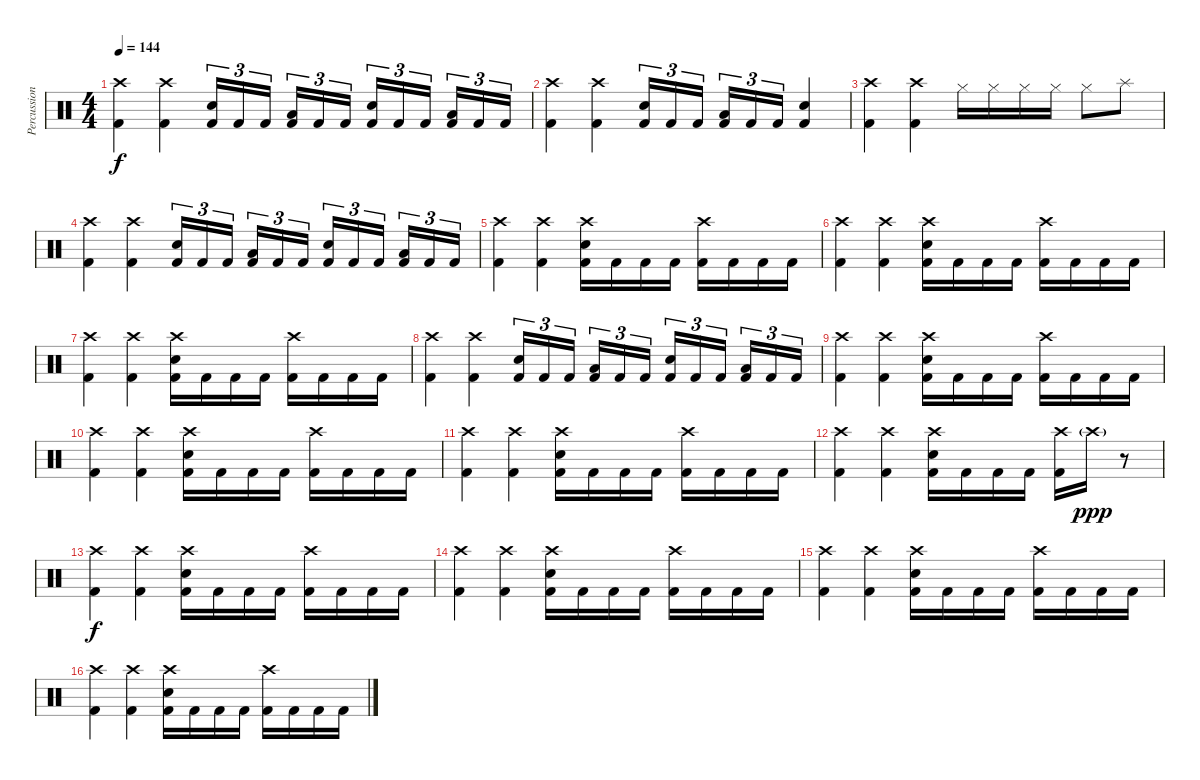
\track ("Percussion" "Percussion") {instrument percussion}
\staff {score}
\articulation defaults
\ts (4 4)
\tempo 144
\clef neutral
\ks c
("Crash high (hit)" "Kick (hit) 2").4{dy f} ("Crash high (hit)" "Kick (hit) 2").4 ("Snare (hit) 2" "Kick (hit) 2").16{tu (3 2)} "Kick (hit) 2".16{tu (3 2)} "Kick (hit) 2".16{tu (3 2) beam splitsecondary} ("Low Tom (hit)" "Kick (hit) 2").16{tu (3 2)} "Kick (hit) 2".16{tu (3 2)} "Kick (hit) 2".16{tu (3 2)} ("Snare (hit) 2" "Kick (hit) 2").16{tu (3 2)} "Kick (hit) 2".16{tu (3 2)} "Kick (hit) 2".16{tu (3 2) beam splitsecondary} ("Low Tom (hit)" "Kick (hit) 2").16{tu (3 2)} "Kick (hit) 2".16{tu (3 2)} "Kick (hit) 2".16{tu (3 2)} |
("Crash high (hit)" "Kick (hit) 2").4 ("Crash high (hit)" "Kick (hit) 2").4 ("Snare (hit) 2" "Kick (hit) 2").16{tu (3 2)} "Kick (hit) 2".16{tu (3 2)} "Kick (hit) 2".16{tu (3 2) beam splitsecondary} ("Low Tom (hit)" "Kick (hit) 2").16{tu (3 2)} "Kick (hit) 2".16{tu (3 2)} "Kick (hit) 2".16{tu (3 2)} ("Snare (hit) 2" "Kick (hit) 2").4 |
("Crash high (hit)" "Kick (hit) 2").4 ("Crash high (hit)" "Kick (hit) 2").4 "Hi-Hat (closed)".16 "Hi-Hat (closed)".16 "Hi-Hat (closed)".16 "Hi-Hat (closed)".16 "Hi-Hat (closed)".8 "Splash (hit)".8 |
("Crash high (hit)" "Kick (hit) 2").4 ("Crash high (hit)" "Kick (hit) 2").4 ("Snare (hit) 2" "Kick (hit) 2").16{tu (3 2)} "Kick (hit) 2".16{tu (3 2)} "Kick (hit) 2".16{tu (3 2) beam splitsecondary} ("Low Tom (hit)" "Kick (hit) 2").16{tu (3 2)} "Kick (hit) 2".16{tu (3 2)} "Kick (hit) 2".16{tu (3 2)} ("Snare (hit) 2" "Kick (hit) 2").16{tu (3 2)} "Kick (hit) 2".16{tu (3 2)} "Kick (hit) 2".16{tu (3 2) beam splitsecondary} ("Low Tom (hit)" "Kick (hit) 2").16{tu (3 2)} "Kick (hit) 2".16{tu (3 2)} "Kick (hit) 2".16{tu (3 2)} |
("Crash high (hit)" "Kick (hit) 2").4 ("Crash high (hit)" "Kick (hit) 2").4 ("Crash high (hit)" "Snare (hit) 2" "Kick (hit) 2").16 "Kick (hit) 2".16 "Kick (hit) 2".16 "Kick (hit) 2".16 ("Crash high (hit)" "Kick (hit) 2").16 "Kick (hit) 2".16 "Kick (hit) 2".16 "Kick (hit) 2".16 |
("Crash high (hit)" "Kick (hit) 2").4 ("Crash high (hit)" "Kick (hit) 2").4 ("Crash high (hit)" "Snare (hit) 2" "Kick (hit) 2").16 "Kick (hit) 2".16 "Kick (hit) 2".16 "Kick (hit) 2".16 ("Crash high (hit)" "Kick (hit) 2").16 "Kick (hit) 2".16 "Kick (hit) 2".16 "Kick (hit) 2".16 |
("Crash high (hit)" "Kick (hit) 2").4 ("Crash high (hit)" "Kick (hit) 2").4 ("Crash high (hit)" "Snare (hit) 2" "Kick (hit) 2").16 "Kick (hit) 2".16 "Kick (hit) 2".16 "Kick (hit) 2".16 ("Crash high (hit)" "Kick (hit) 2").16 "Kick (hit) 2".16 "Kick (hit) 2".16 "Kick (hit) 2".16 |
("Crash high (hit)" "Kick (hit) 2").4 ("Crash high (hit)" "Kick (hit) 2").4 ("Snare (hit) 2" "Kick (hit) 2").16{tu (3 2)} "Kick (hit) 2".16{tu (3 2)} "Kick (hit) 2".16{tu (3 2) beam splitsecondary} ("Low Tom (hit)" "Kick (hit) 2").16{tu (3 2)} "Kick (hit) 2".16{tu (3 2)} "Kick (hit) 2".16{tu (3 2)} ("Snare (hit) 2" "Kick (hit) 2").16{tu (3 2)} "Kick (hit) 2".16{tu (3 2)} "Kick (hit) 2".16{tu (3 2) beam splitsecondary} ("Low Tom (hit)" "Kick (hit) 2").16{tu (3 2)} "Kick (hit) 2".16{tu (3 2)} "Kick (hit) 2".16{tu (3 2)} |
("Crash high (hit)" "Kick (hit) 2").4 ("Crash high (hit)" "Kick (hit) 2").4 ("Crash high (hit)" "Snare (hit) 2" "Kick (hit) 2").16 "Kick (hit) 2".16 "Kick (hit) 2".16 "Kick (hit) 2".16 ("Crash high (hit)" "Kick (hit) 2").16 "Kick (hit) 2".16 "Kick (hit) 2".16 "Kick (hit) 2".16 |
("Crash high (hit)" "Kick (hit) 2").4 ("Crash high (hit)" "Kick (hit) 2").4 ("Crash high (hit)" "Snare (hit) 2" "Kick (hit) 2").16 "Kick (hit) 2".16 "Kick (hit) 2".16 "Kick (hit) 2".16 ("Crash high (hit)" "Kick (hit) 2").16 "Kick (hit) 2".16 "Kick (hit) 2".16 "Kick (hit) 2".16 |
("Crash high (hit)" "Kick (hit) 2").4 ("Crash high (hit)" "Kick (hit) 2").4 ("Crash high (hit)" "Snare (hit) 2" "Kick (hit) 2").16 "Kick (hit) 2".16 "Kick (hit) 2".16 "Kick (hit) 2".16 ("Crash high (hit)" "Kick (hit) 2").16 "Kick (hit) 2".16 "Kick (hit) 2".16 "Kick (hit) 2".16 |
("Crash high (hit)" "Kick (hit) 2").4 ("Crash high (hit)" "Kick (hit) 2").4 ("Crash high (hit)" "Snare (hit) 2" "Kick (hit) 2").16 "Kick (hit) 2".16 "Kick (hit) 2".16 "Kick (hit) 2".16 ("Crash high (hit)" "Kick (hit) 2").16 "Crash high (hit)"{g}.16{dy ppp} r.8 |
("Crash high (hit)" "Kick (hit) 2").4{dy f} ("Crash high (hit)" "Kick (hit) 2").4 ("Crash high (hit)" "Snare (hit) 2" "Kick (hit) 2").16 "Kick (hit) 2".16 "Kick (hit) 2".16 "Kick (hit) 2".16 ("Crash high (hit)" "Kick (hit) 2").16 "Kick (hit) 2".16 "Kick (hit) 2".16 "Kick (hit) 2".16 |
("Crash high (hit)" "Kick (hit) 2").4 ("Crash high (hit)" "Kick (hit) 2").4 ("Crash high (hit)" "Snare (hit) 2" "Kick (hit) 2").16 "Kick (hit) 2".16 "Kick (hit) 2".16 "Kick (hit) 2".16 ("Crash high (hit)" "Kick (hit) 2").16 "Kick (hit) 2".16 "Kick (hit) 2".16 "Kick (hit) 2".16 |
("Crash high (hit)" "Kick (hit) 2").4 ("Crash high (hit)" "Kick (hit) 2").4 ("Crash high (hit)" "Snare (hit) 2" "Kick (hit) 2").16 "Kick (hit) 2".16 "Kick (hit) 2".16 "Kick (hit) 2".16 ("Crash high (hit)" "Kick (hit) 2").16 "Kick (hit) 2".16 "Kick (hit) 2".16 "Kick (hit) 2".16 |
("Crash high (hit)" "Kick (hit) 2").4 ("Crash high (hit)" "Kick (hit) 2").4 ("Crash high (hit)" "Snare (hit) 2" "Kick (hit) 2").16 "Kick (hit) 2".16 "Kick (hit) 2".16 "Kick (hit) 2".16 ("Crash high (hit)" "Kick (hit) 2").16 "Kick (hit) 2".16 "Kick (hit) 2".16 "Kick (hit) 2".16
